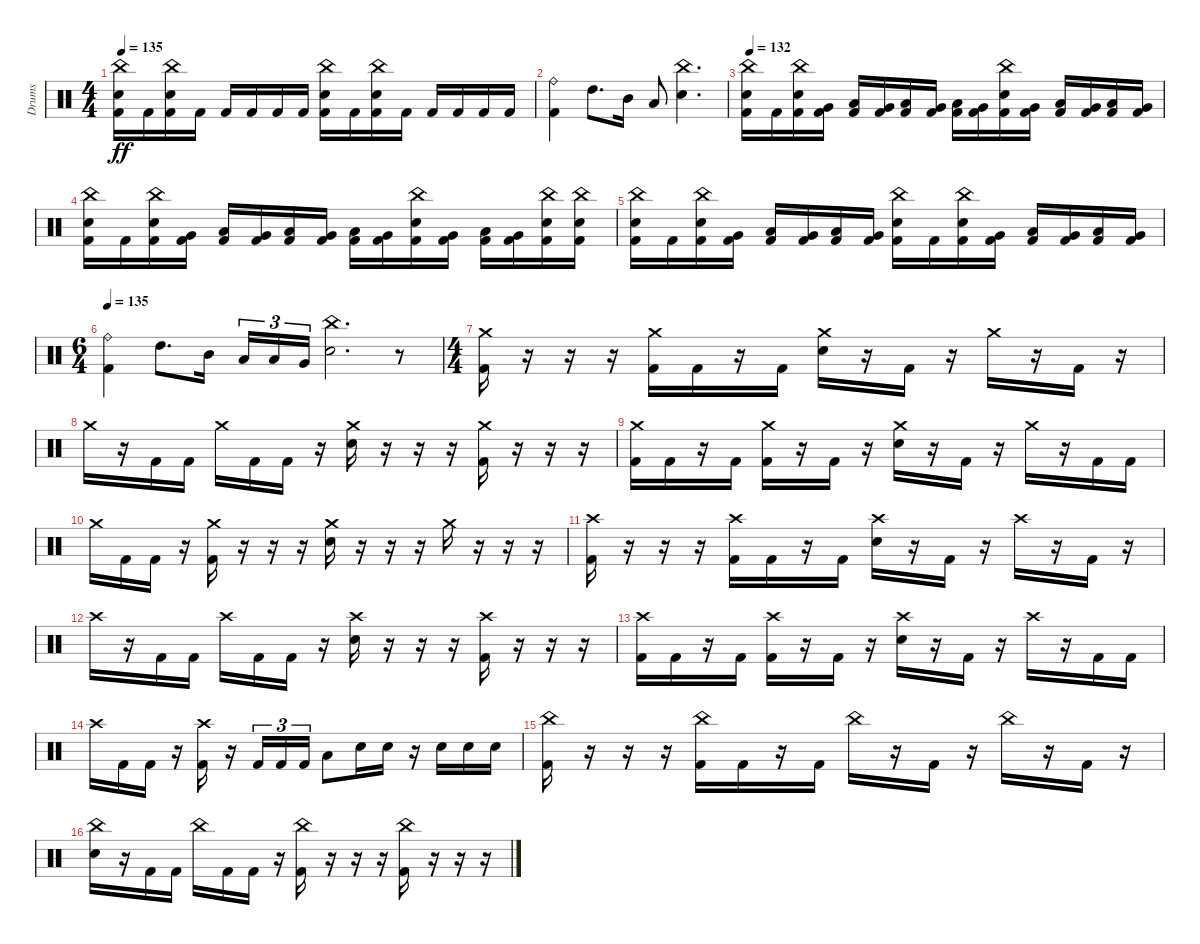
\track ("Drums" "Drums") {instrument percussion}
\staff {score}
\articulation defaults
\ts (4 4)
\tempo 135
\clef neutral
\ks c
("China (hit)" "Electric Snare (hit)" "Kick (hit) 2").16{dy ff} "Kick (hit) 2".16 ("China (hit)" "Electric Snare (hit)" "Kick (hit) 2").16 "Kick (hit) 2".16 "Kick (hit) 2".16 "Kick (hit) 2".16 "Kick (hit) 2".16 "Kick (hit) 2".16 ("China (hit)" "Electric Snare (hit)" "Kick (hit) 2").16 "Kick (hit) 2".16 ("China (hit)" "Electric Snare (hit)" "Kick (hit) 2").16 "Kick (hit) 2".16 "Kick (hit) 2".16 "Kick (hit) 2".16 "Kick (hit) 2".16 "Kick (hit) 2".16 |
("Ride (bell)" "Kick (hit) 2").4 "High Tom (hit)".8{d} "Mid Tom (hit)".16 "Low Tom (hit)".8 ("China (hit)" "Electric Snare (hit)").4{d} |
\tempo 132
("China (hit)" "Electric Snare (hit)" "Kick (hit) 2").16 "Kick (hit) 2".16 ("China (hit)" "Electric Snare (hit)" "Kick (hit) 2").16 ("Very Low Tom (hit)" "Kick (hit) 2").16 ("Low Tom (hit)" "Kick (hit) 2").16 ("Very Low Tom (hit)" "Kick (hit) 2").16 ("Low Tom (hit)" "Kick (hit) 2").16 ("Very Low Tom (hit)" "Kick (hit) 2").16 ("Low Tom (hit)" "Kick (hit) 2").16 ("Very Low Tom (hit)" "Kick (hit) 2").16 ("China (hit)" "Electric Snare (hit)" "Kick (hit) 2").16 ("Very Low Tom (hit)" "Kick (hit) 2").16 ("Low Tom (hit)" "Kick (hit) 2").16 ("Very Low Tom (hit)" "Kick (hit) 2").16 ("Low Tom (hit)" "Kick (hit) 2").16 ("Very Low Tom (hit)" "Kick (hit) 2").16 |
("China (hit)" "Electric Snare (hit)" "Kick (hit) 2").16 "Kick (hit) 2".16 ("China (hit)" "Electric Snare (hit)" "Kick (hit) 2").16 ("Very Low Tom (hit)" "Kick (hit) 2").16 ("Low Tom (hit)" "Kick (hit) 2").16 ("Very Low Tom (hit)" "Kick (hit) 2").16 ("Low Tom (hit)" "Kick (hit) 2").16 ("Very Low Tom (hit)" "Kick (hit) 2").16 ("Low Tom (hit)" "Kick (hit) 2").16 ("Very Low Tom (hit)" "Kick (hit) 2").16 ("China (hit)" "Electric Snare (hit)" "Kick (hit) 2").16 ("Very Low Tom (hit)" "Kick (hit) 2").16 ("Low Tom (hit)" "Kick (hit) 2").16 ("Very Low Tom (hit)" "Kick (hit) 2").16 ("China (hit)" "Electric Snare (hit)" "Kick (hit) 2").16 ("China (hit)" "Electric Snare (hit)" "Kick (hit) 2").16 |
("China (hit)" "Electric Snare (hit)" "Kick (hit) 2").16 "Kick (hit) 2".16 ("China (hit)" "Electric Snare (hit)" "Kick (hit) 2").16 ("Very Low Tom (hit)" "Kick (hit) 2").16 ("Low Tom (hit)" "Kick (hit) 2").16 ("Very Low Tom (hit)" "Kick (hit) 2").16 ("Low Tom (hit)" "Kick (hit) 2").16 ("Very Low Tom (hit)" "Kick (hit) 2").16 ("China (hit)" "Electric Snare (hit)" "Kick (hit) 2").16 "Kick (hit) 2".16 ("China (hit)" "Electric Snare (hit)" "Kick (hit) 2").16 ("Very Low Tom (hit)" "Kick (hit) 2").16 ("Low Tom (hit)" "Kick (hit) 2").16 ("Very Low Tom (hit)" "Kick (hit) 2").16 ("Low Tom (hit)" "Kick (hit) 2").16 ("Very Low Tom (hit)" "Kick (hit) 2").16 |
\ts (6 4)
\tempo 135
("Ride (bell)" "Kick (hit) 2").4 "High Tom (hit)".8{d} "Mid Tom (hit)".16{beam splitsecondary} "Low Tom (hit)".16{tu (3 2)} "Low Tom (hit)".16{tu (3 2)} "Very Low Tom (hit)".16{tu (3 2)} ("China (hit)" "Electric Snare (hit)").2{d} r.8 |
\ts (4 4)
("Crash medium (hit)" "Kick (hit) 2").16 r.16 r.16 r.16 ("Crash medium (hit)" "Kick (hit) 2").16 "Kick (hit) 2".16 r.16 "Kick (hit) 2".16 ("Crash medium (hit)" "Electric Snare (hit)").16 r.16 "Kick (hit) 2".16 r.16 "Crash medium (hit)".16 r.16 "Kick (hit) 2".16 r.16 |
"Crash medium (hit)".16 r.16 "Kick (hit) 2".16 "Kick (hit) 2".16 "Crash medium (hit)".16 "Kick (hit) 2".16 "Kick (hit) 2".16 r.16 ("Crash medium (hit)" "Electric Snare (hit)").16 r.16 r.16 r.16 ("Crash medium (hit)" "Kick (hit) 2").16 r.16 r.16 r.16 |
("Crash medium (hit)" "Kick (hit) 2").16 "Kick (hit) 2".16 r.16 "Kick (hit) 2".16 ("Crash medium (hit)" "Kick (hit) 2").16 r.16 "Kick (hit) 2".16 r.16 ("Crash medium (hit)" "Electric Snare (hit)").16 r.16 "Kick (hit) 2".16 r.16 "Crash medium (hit)".16 r.16 "Kick (hit) 2".16 "Kick (hit) 2".16 |
"Crash medium (hit)".16 "Kick (hit) 2".16 "Kick (hit) 2".16 r.16 ("Crash medium (hit)" "Kick (hit) 2").16 r.16 r.16 r.16 ("Crash medium (hit)" "Electric Snare (hit)").16 r.16 r.16 r.16 "Crash medium (hit)".16 r.16 r.16 r.16 |
("Crash high (hit)" "Kick (hit) 2").16 r.16 r.16 r.16 ("Crash high (hit)" "Kick (hit) 2").16 "Kick (hit) 2".16 r.16 "Kick (hit) 2".16 ("Crash high (hit)" "Electric Snare (hit)").16 r.16 "Kick (hit) 2".16 r.16 "Crash high (hit)".16 r.16 "Kick (hit) 2".16 r.16 |
"Crash high (hit)".16 r.16 "Kick (hit) 2".16 "Kick (hit) 2".16 "Crash high (hit)".16 "Kick (hit) 2".16 "Kick (hit) 2".16 r.16 ("Crash high (hit)" "Electric Snare (hit)").16 r.16 r.16 r.16 ("Crash high (hit)" "Kick (hit) 2").16 r.16 r.16 r.16 |
("Crash high (hit)" "Kick (hit) 2").16 "Kick (hit) 2".16 r.16 "Kick (hit) 2".16 ("Crash high (hit)" "Kick (hit) 2").16 r.16 "Kick (hit) 2".16 r.16 ("Crash high (hit)" "Electric Snare (hit)").16 r.16 "Kick (hit) 2".16 r.16 "Crash high (hit)".16 r.16 "Kick (hit) 2".16 "Kick (hit) 2".16 |
"Crash high (hit)".16 "Kick (hit) 2".16 "Kick (hit) 2".16 r.16 ("Crash high (hit)" "Kick (hit) 2").16 r.16 "Kick (hit) 2".16{tu (3 2)} "Kick (hit) 2".16{tu (3 2)} "Kick (hit) 2".16{tu (3 2)} "Low Floor Tom (hit)".8 "Electric Snare (hit)".16 "Electric Snare (hit)".16 r.16 "Electric Snare (hit)".16 "Electric Snare (hit)".16 "Electric Snare (hit)".16 |
("China (hit)" "Kick (hit) 2").16 r.16 r.16 r.16 ("China (hit)" "Kick (hit) 2").16 "Kick (hit) 2".16 r.16 "Kick (hit) 2".16 "China (hit)".16 r.16 "Kick (hit) 2".16 r.16 "China (hit)".16 r.16 "Kick (hit) 2".16 r.16 |
("China (hit)" "Electric Snare (hit)").16 r.16 "Kick (hit) 2".16 "Kick (hit) 2".16 "China (hit)".16 "Kick (hit) 2".16 "Kick (hit) 2".16 r.16 ("China (hit)" "Kick (hit) 2").16 r.16 r.16 r.16 ("China (hit)" "Kick (hit) 2").16 r.16 r.16 r.16
